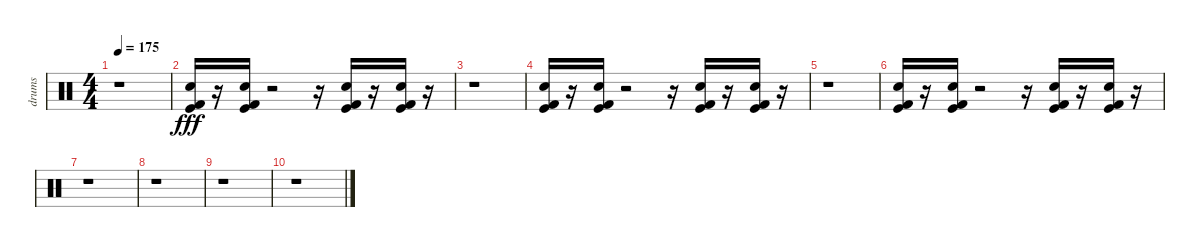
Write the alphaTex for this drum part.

\track ("drums" "drums") {instrument percussion}
\staff {score}
\articulation defaults
\ts (4 4)
\tempo 175
\clef neutral
\ks c
r.1{dy fff} |
("Kick (hit) 2" "Kick (hit)" "Snare (hit) 2").16 r.16 ("Snare (hit) 2" "Kick (hit)" "Kick (hit) 2").16 r.2 r.16 ("Kick (hit) 2" "Kick (hit)" "Snare (hit) 2").16 r.16 ("Snare (hit) 2" "Kick (hit)" "Kick (hit) 2").16 r.16 |
r.1 |
("Kick (hit) 2" "Kick (hit)" "Snare (hit) 2").16 r.16 ("Snare (hit) 2" "Kick (hit)" "Kick (hit) 2").16 r.2 r.16 ("Kick (hit) 2" "Kick (hit)" "Snare (hit) 2").16 r.16 ("Snare (hit) 2" "Kick (hit)" "Kick (hit) 2").16 r.16 |
r.1 |
("Kick (hit) 2" "Kick (hit)" "Snare (hit) 2").16 r.16 ("Snare (hit) 2" "Kick (hit)" "Kick (hit) 2").16 r.2 r.16 ("Kick (hit) 2" "Kick (hit)" "Snare (hit) 2").16 r.16 ("Snare (hit) 2" "Kick (hit)" "Kick (hit) 2").16 r.16 |
r.1 |
r.1 |
r.1 |
r.1
